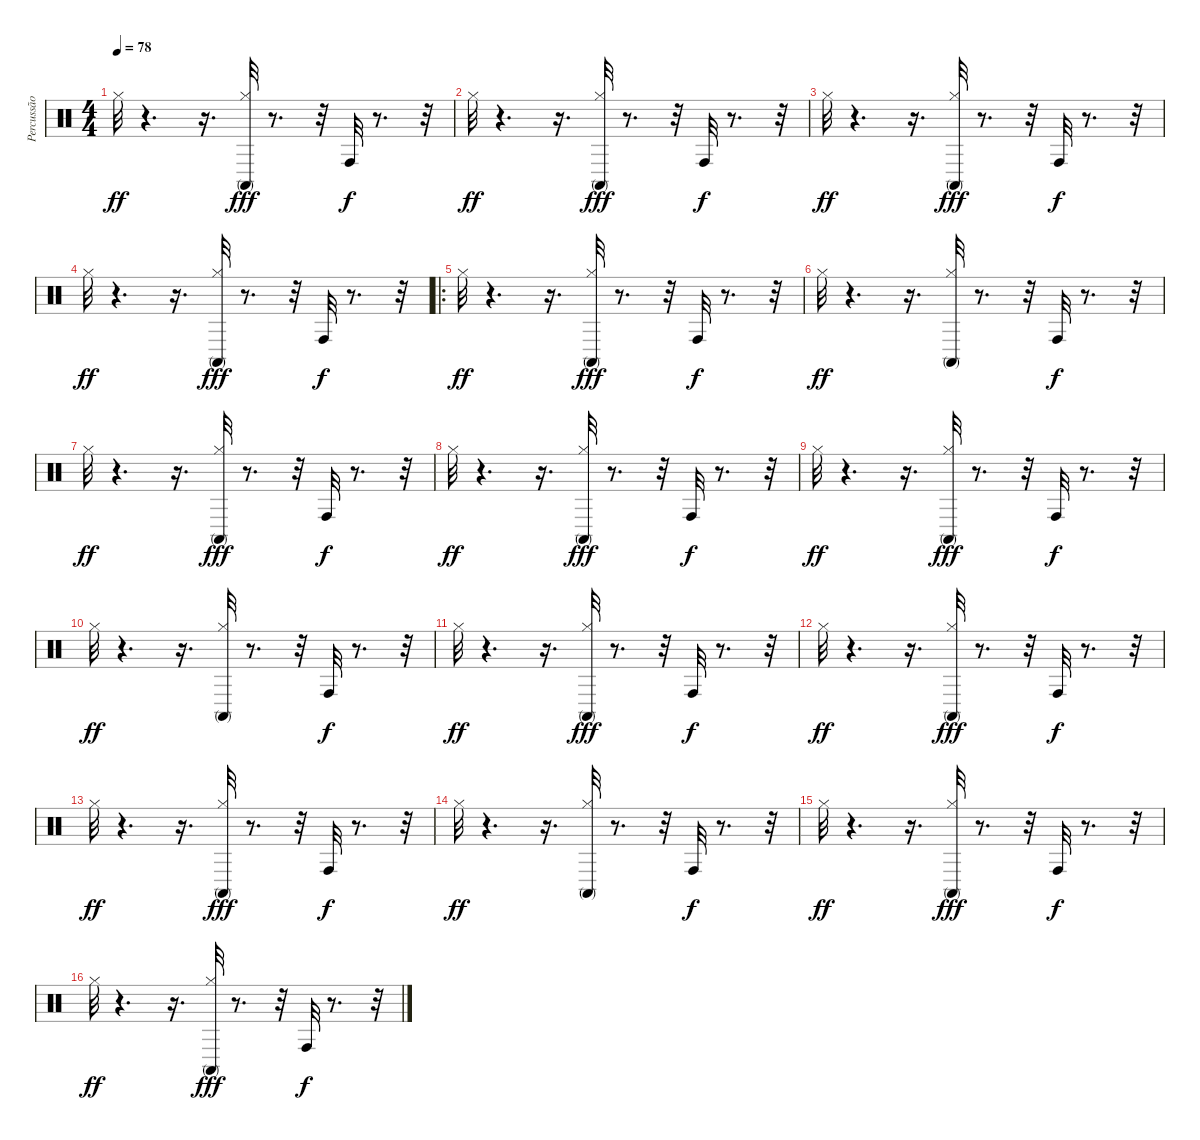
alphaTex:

\track ("Percussão" "Percussão") {instrument percussion}
\staff {score}
\articulation defaults
\ts (4 4)
\tempo 78
\clef neutral
\ks c "Hi-Hat (closed)".32{dy ff}
r.4{d} r.16{d} ("Hi-Hat (closed)" "Conga high (mute)").32{dy fff} r.8{d} r.32 "Conga high (hit)".32{dy f} r.8{d} r.32 |
"Hi-Hat (closed)".32{dy ff} r.4{d} r.16{d} ("Hi-Hat (closed)" "Conga high (mute)").32{dy fff} r.8{d} r.32 "Conga high (hit)".32{dy f} r.8{d} r.32 |
"Hi-Hat (closed)".32{dy ff} r.4{d} r.16{d} ("Hi-Hat (closed)" "Conga high (mute)").32{dy fff} r.8{d} r.32 "Conga high (hit)".32{dy f} r.8{d} r.32 |
"Hi-Hat (closed)".32{dy ff} r.4{d} r.16{d} ("Hi-Hat (closed)" "Conga high (mute)").32{dy fff} r.8{d} r.32 "Conga high (hit)".32{dy f} r.8{d} r.32 |
\ro "Hi-Hat (closed)".32{dy ff}
r.4{d} r.16{d} ("Hi-Hat (closed)" "Conga high (mute)").32{dy fff} r.8{d} r.32 "Conga high (hit)".32{dy f} r.8{d} r.32 |
"Hi-Hat (closed)".32{dy ff} r.4{d} r.16{d} ("Conga high (mute)" "Hi-Hat (closed)").32 r.8{d} r.32 "Conga high (hit)".32{dy f} r.8{d} r.32 |
"Hi-Hat (closed)".32{dy ff} r.4{d} r.16{d} ("Hi-Hat (closed)" "Conga high (mute)").32{dy fff} r.8{d} r.32 "Conga high (hit)".32{dy f} r.8{d} r.32 |
"Hi-Hat (closed)".32{dy ff} r.4{d} r.16{d} ("Hi-Hat (closed)" "Conga high (mute)").32{dy fff} r.8{d} r.32 "Conga high (hit)".32{dy f} r.8{d} r.32 |
"Hi-Hat (closed)".32{dy ff} r.4{d} r.16{d} ("Hi-Hat (closed)" "Conga high (mute)").32{dy fff} r.8{d} r.32 "Conga high (hit)".32{dy f} r.8{d} r.32 |
"Hi-Hat (closed)".32{dy ff} r.4{d} r.16{d} ("Conga high (mute)" "Hi-Hat (closed)").32 r.8{d} r.32 "Conga high (hit)".32{dy f} r.8{d} r.32 |
"Hi-Hat (closed)".32{dy ff} r.4{d} r.16{d} ("Hi-Hat (closed)" "Conga high (mute)").32{dy fff} r.8{d} r.32 "Conga high (hit)".32{dy f} r.8{d} r.32 |
"Hi-Hat (closed)".32{dy ff} r.4{d} r.16{d} ("Hi-Hat (closed)" "Conga high (mute)").32{dy fff} r.8{d} r.32 "Conga high (hit)".32{dy f} r.8{d} r.32 |
"Hi-Hat (closed)".32{dy ff} r.4{d} r.16{d} ("Hi-Hat (closed)" "Conga high (mute)").32{dy fff} r.8{d} r.32 "Conga high (hit)".32{dy f} r.8{d} r.32 |
"Hi-Hat (closed)".32{dy ff} r.4{d} r.16{d} ("Conga high (mute)" "Hi-Hat (closed)").32 r.8{d} r.32 "Conga high (hit)".32{dy f} r.8{d} r.32 |
"Hi-Hat (closed)".32{dy ff} r.4{d} r.16{d} ("Hi-Hat (closed)" "Conga high (mute)").32{dy fff} r.8{d} r.32 "Conga high (hit)".32{dy f} r.8{d} r.32 |
"Hi-Hat (closed)".32{dy ff} r.4{d} r.16{d} ("Hi-Hat (closed)" "Conga high (mute)").32{dy fff} r.8{d} r.32 "Conga high (hit)".32{dy f} r.8{d} r.32
